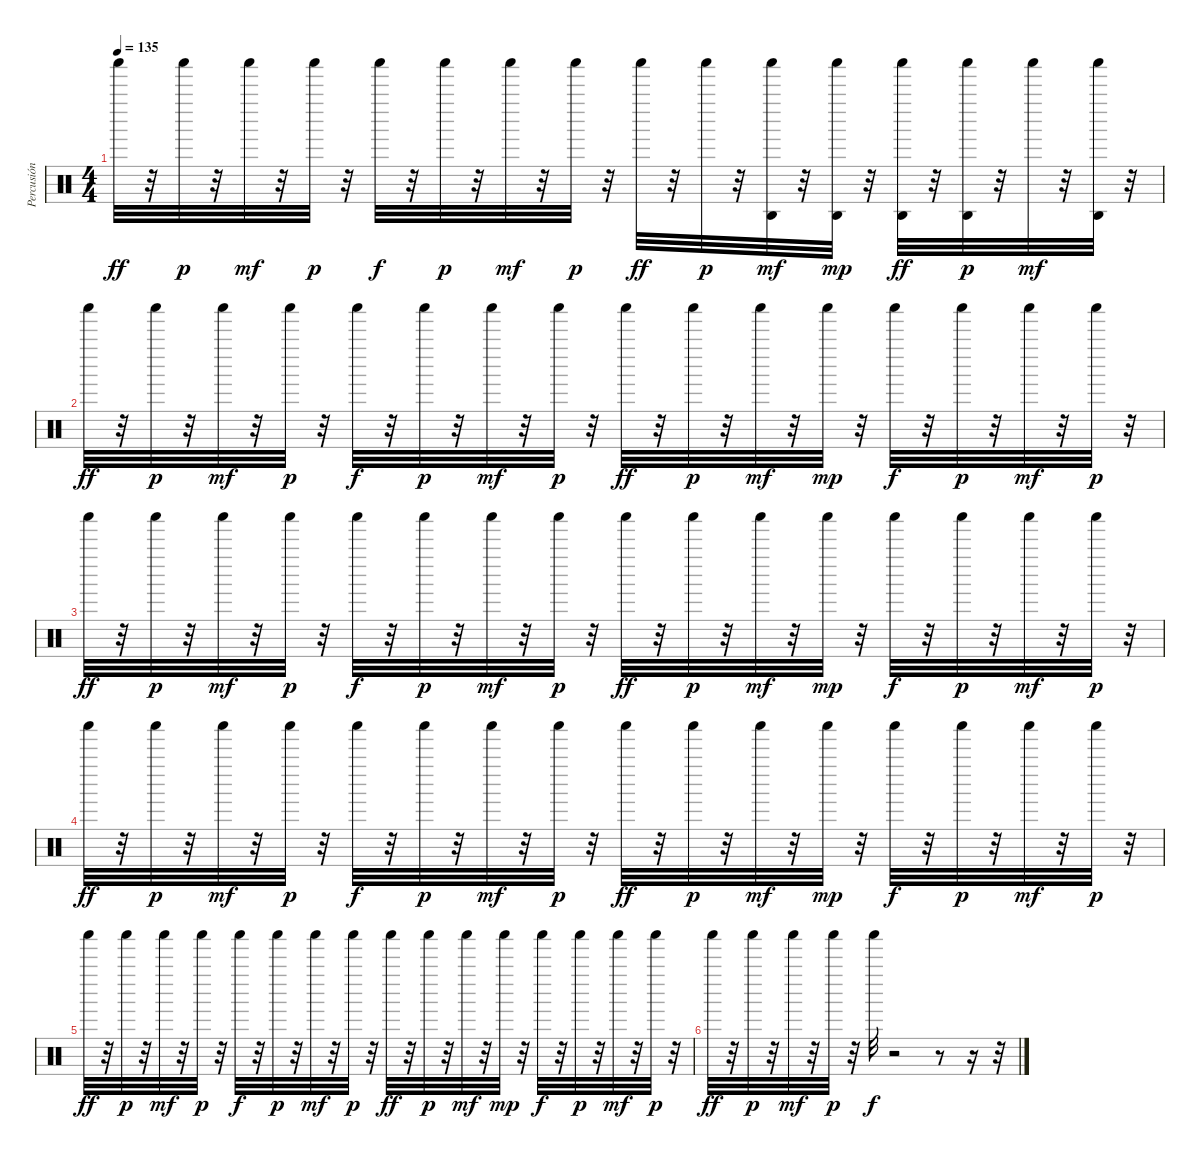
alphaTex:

\track ("Percusión" "Percusión") {instrument percussion}
\staff {score}
\articulation defaults
\ts (4 4)
\tempo 135
\clef neutral
\ks c "Shaker (hit)".32{dy ff}
r.32 "Shaker (hit)".32{dy p} r.32 "Shaker (hit)".32{dy mf} r.32 "Shaker (hit)".32{dy p} r.32 "Shaker (hit)".32{dy f} r.32 "Shaker (hit)".32{dy p} r.32 "Shaker (hit)".32{dy mf} r.32 "Shaker (hit)".32{dy p} r.32 "Shaker (hit)".32{dy ff} r.32 "Shaker (hit)".32{dy p} r.32 ("Agogo high (hit)" "Shaker (hit)").32{dy mf} r.32 ("Agogo high (hit)" "Shaker (hit)").32{dy mp} r.32 ("Agogo high (hit)" "Shaker (hit)").32{dy ff} r.32 ("Agogo high (hit)" "Shaker (hit)").32{dy p} r.32 "Shaker (hit)".32{dy mf} r.32 ("Shaker (hit)" "Agogo high (hit)").32 r.32 |
"Shaker (hit)".32{dy ff} r.32 "Shaker (hit)".32{dy p} r.32 "Shaker (hit)".32{dy mf} r.32 "Shaker (hit)".32{dy p} r.32 "Shaker (hit)".32{dy f} r.32 "Shaker (hit)".32{dy p} r.32 "Shaker (hit)".32{dy mf} r.32 "Shaker (hit)".32{dy p} r.32 "Shaker (hit)".32{dy ff} r.32 "Shaker (hit)".32{dy p} r.32 "Shaker (hit)".32{dy mf} r.32 "Shaker (hit)".32{dy mp} r.32 "Shaker (hit)".32{dy f} r.32 "Shaker (hit)".32{dy p} r.32 "Shaker (hit)".32{dy mf} r.32 "Shaker (hit)".32{dy p} r.32 |
"Shaker (hit)".32{dy ff} r.32 "Shaker (hit)".32{dy p} r.32 "Shaker (hit)".32{dy mf} r.32 "Shaker (hit)".32{dy p} r.32 "Shaker (hit)".32{dy f} r.32 "Shaker (hit)".32{dy p} r.32 "Shaker (hit)".32{dy mf} r.32 "Shaker (hit)".32{dy p} r.32 "Shaker (hit)".32{dy ff} r.32 "Shaker (hit)".32{dy p} r.32 "Shaker (hit)".32{dy mf} r.32 "Shaker (hit)".32{dy mp} r.32 "Shaker (hit)".32{dy f} r.32 "Shaker (hit)".32{dy p} r.32 "Shaker (hit)".32{dy mf} r.32 "Shaker (hit)".32{dy p} r.32 |
"Shaker (hit)".32{dy ff} r.32 "Shaker (hit)".32{dy p} r.32 "Shaker (hit)".32{dy mf} r.32 "Shaker (hit)".32{dy p} r.32 "Shaker (hit)".32{dy f} r.32 "Shaker (hit)".32{dy p} r.32 "Shaker (hit)".32{dy mf} r.32 "Shaker (hit)".32{dy p} r.32 "Shaker (hit)".32{dy ff} r.32 "Shaker (hit)".32{dy p} r.32 "Shaker (hit)".32{dy mf} r.32 "Shaker (hit)".32{dy mp} r.32 "Shaker (hit)".32{dy f} r.32 "Shaker (hit)".32{dy p} r.32 "Shaker (hit)".32{dy mf} r.32 "Shaker (hit)".32{dy p} r.32 |
"Shaker (hit)".32{dy ff} r.32 "Shaker (hit)".32{dy p} r.32 "Shaker (hit)".32{dy mf} r.32 "Shaker (hit)".32{dy p} r.32 "Shaker (hit)".32{dy f} r.32 "Shaker (hit)".32{dy p} r.32 "Shaker (hit)".32{dy mf} r.32 "Shaker (hit)".32{dy p} r.32 "Shaker (hit)".32{dy ff} r.32 "Shaker (hit)".32{dy p} r.32 "Shaker (hit)".32{dy mf} r.32 "Shaker (hit)".32{dy mp} r.32 "Shaker (hit)".32{dy f} r.32 "Shaker (hit)".32{dy p} r.32 "Shaker (hit)".32{dy mf} r.32 "Shaker (hit)".32{dy p} r.32 |
"Shaker (hit)".32{dy ff} r.32 "Shaker (hit)".32{dy p} r.32 "Shaker (hit)".32{dy mf} r.32 "Shaker (hit)".32{dy p} r.32 "Shaker (hit)".32{dy f} r.2 r.8 r.16 r.32
